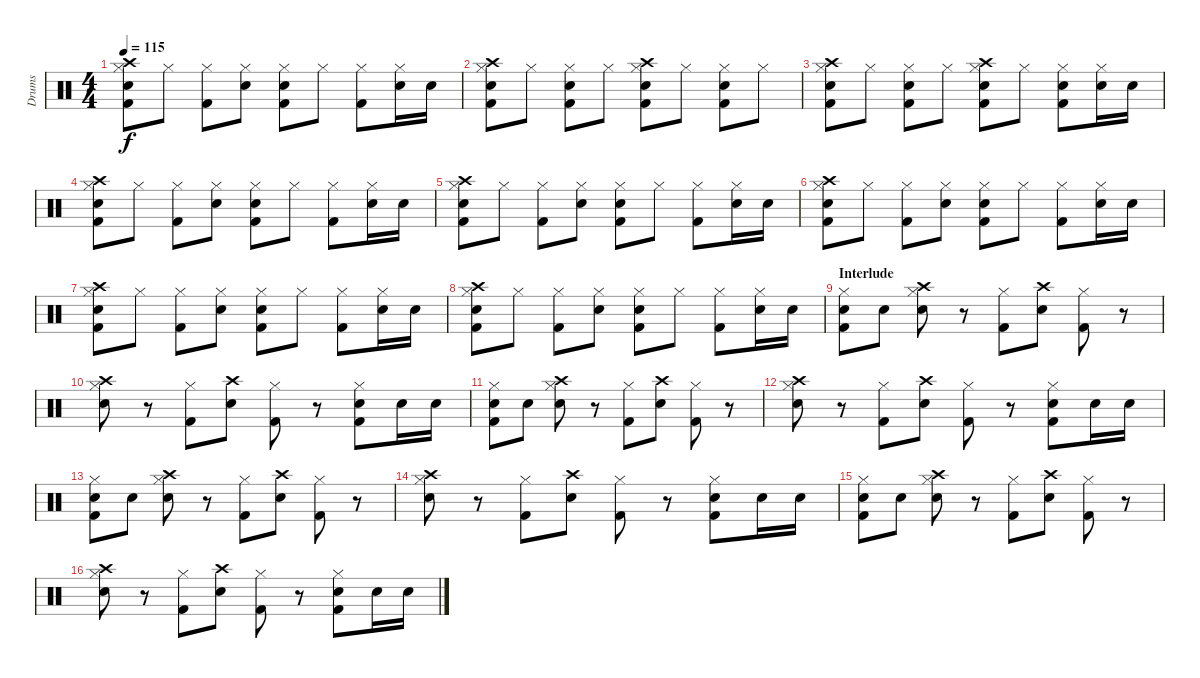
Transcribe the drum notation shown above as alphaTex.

\track ("Drums" "Drums") {instrument percussion}
\staff {score}
\articulation defaults
\ts (4 4)
\tempo 115
\clef neutral
\ks c
("Hi-Hat (closed)" "Kick (hit) 2" "Snare (hit) 2" "Crash high (hit)").8{dy f} "Hi-Hat (closed)".8 ("Hi-Hat (closed)" "Kick (hit) 2").8 ("Hi-Hat (closed)" "Snare (hit) 2").8 ("Hi-Hat (closed)" "Kick (hit) 2" "Snare (hit) 2").8 "Hi-Hat (closed)".8 ("Hi-Hat (closed)" "Kick (hit) 2").8 ("Hi-Hat (closed)" "Snare (hit) 2").16 "Snare (hit) 2".16 |
("Hi-Hat (closed)" "Kick (hit) 2" "Snare (hit) 2" "Crash high (hit)").8 "Hi-Hat (closed)".8 ("Hi-Hat (closed)" "Kick (hit) 2" "Snare (hit) 2").8 "Hi-Hat (closed)".8 ("Hi-Hat (closed)" "Kick (hit) 2" "Snare (hit) 2" "Crash high (hit)").8 "Hi-Hat (closed)".8 ("Hi-Hat (closed)" "Kick (hit) 2" "Snare (hit) 2").8 "Hi-Hat (closed)".8 |
("Hi-Hat (closed)" "Kick (hit) 2" "Snare (hit) 2" "Crash high (hit)").8 "Hi-Hat (closed)".8 ("Hi-Hat (closed)" "Kick (hit) 2" "Snare (hit) 2").8 "Hi-Hat (closed)".8 ("Hi-Hat (closed)" "Kick (hit) 2" "Snare (hit) 2" "Crash high (hit)").8 "Hi-Hat (closed)".8 ("Hi-Hat (closed)" "Kick (hit) 2" "Snare (hit) 2").8 ("Hi-Hat (closed)" "Snare (hit) 2").16 "Snare (hit) 2".16 |
("Hi-Hat (closed)" "Kick (hit) 2" "Snare (hit) 2" "Crash high (hit)").8 "Hi-Hat (closed)".8 ("Hi-Hat (closed)" "Kick (hit) 2").8 ("Hi-Hat (closed)" "Snare (hit) 2").8 ("Hi-Hat (closed)" "Kick (hit) 2" "Snare (hit) 2").8 "Hi-Hat (closed)".8 ("Hi-Hat (closed)" "Kick (hit) 2").8 ("Hi-Hat (closed)" "Snare (hit) 2").16 "Snare (hit) 2".16 |
("Hi-Hat (closed)" "Kick (hit) 2" "Snare (hit) 2" "Crash high (hit)").8 "Hi-Hat (closed)".8 ("Hi-Hat (closed)" "Kick (hit) 2").8 ("Hi-Hat (closed)" "Snare (hit) 2").8 ("Hi-Hat (closed)" "Kick (hit) 2" "Snare (hit) 2").8 "Hi-Hat (closed)".8 ("Hi-Hat (closed)" "Kick (hit) 2").8 ("Hi-Hat (closed)" "Snare (hit) 2").16 "Snare (hit) 2".16 |
("Hi-Hat (closed)" "Kick (hit) 2" "Snare (hit) 2" "Crash high (hit)").8 "Hi-Hat (closed)".8 ("Hi-Hat (closed)" "Kick (hit) 2").8 ("Hi-Hat (closed)" "Snare (hit) 2").8 ("Hi-Hat (closed)" "Kick (hit) 2" "Snare (hit) 2").8 "Hi-Hat (closed)".8 ("Hi-Hat (closed)" "Kick (hit) 2").8 ("Hi-Hat (closed)" "Snare (hit) 2").16 "Snare (hit) 2".16 |
("Hi-Hat (closed)" "Kick (hit) 2" "Snare (hit) 2" "Crash high (hit)").8 "Hi-Hat (closed)".8 ("Hi-Hat (closed)" "Kick (hit) 2").8 ("Hi-Hat (closed)" "Snare (hit) 2").8 ("Hi-Hat (closed)" "Kick (hit) 2" "Snare (hit) 2").8 "Hi-Hat (closed)".8 ("Hi-Hat (closed)" "Kick (hit) 2").8 ("Hi-Hat (closed)" "Snare (hit) 2").16 "Snare (hit) 2".16 |
("Hi-Hat (closed)" "Kick (hit) 2" "Snare (hit) 2" "Crash high (hit)").8 "Hi-Hat (closed)".8 ("Hi-Hat (closed)" "Kick (hit) 2").8 ("Hi-Hat (closed)" "Snare (hit) 2").8 ("Hi-Hat (closed)" "Kick (hit) 2" "Snare (hit) 2").8 "Hi-Hat (closed)".8 ("Hi-Hat (closed)" "Kick (hit) 2").8 ("Hi-Hat (closed)" "Snare (hit) 2").16 "Snare (hit) 2".16 |
\section ("" "Interlude")
("Hi-Hat (closed)" "Kick (hit) 2" "Snare (hit) 2").8 "Snare (hit) 2".8 ("Hi-Hat (closed)" "Crash high (hit)" "Snare (hit) 2").8 r.8 ("Hi-Hat (closed)" "Kick (hit) 2").8 ("Crash high (hit)" "Snare (hit) 2").8 ("Hi-Hat (closed)" "Kick (hit) 2").8 r.8 |
("Hi-Hat (closed)" "Crash high (hit)" "Snare (hit) 2").8 r.8 ("Hi-Hat (closed)" "Kick (hit) 2").8 ("Crash high (hit)" "Snare (hit) 2").8 ("Hi-Hat (closed)" "Kick (hit) 2").8 r.8 ("Hi-Hat (closed)" "Kick (hit) 2" "Snare (hit) 2").8 "Snare (hit) 2".16 "Snare (hit) 2".16 |
("Hi-Hat (closed)" "Kick (hit) 2" "Snare (hit) 2").8 "Snare (hit) 2".8 ("Hi-Hat (closed)" "Crash high (hit)" "Snare (hit) 2").8 r.8 ("Hi-Hat (closed)" "Kick (hit) 2").8 ("Crash high (hit)" "Snare (hit) 2").8 ("Hi-Hat (closed)" "Kick (hit) 2").8 r.8 |
("Hi-Hat (closed)" "Crash high (hit)" "Snare (hit) 2").8 r.8 ("Hi-Hat (closed)" "Kick (hit) 2").8 ("Crash high (hit)" "Snare (hit) 2").8 ("Hi-Hat (closed)" "Kick (hit) 2").8 r.8 ("Hi-Hat (closed)" "Kick (hit) 2" "Snare (hit) 2").8 "Snare (hit) 2".16 "Snare (hit) 2".16 |
("Hi-Hat (closed)" "Kick (hit) 2" "Snare (hit) 2").8 "Snare (hit) 2".8 ("Hi-Hat (closed)" "Crash high (hit)" "Snare (hit) 2").8 r.8 ("Hi-Hat (closed)" "Kick (hit) 2").8 ("Crash high (hit)" "Snare (hit) 2").8 ("Hi-Hat (closed)" "Kick (hit) 2").8 r.8 |
("Hi-Hat (closed)" "Crash high (hit)" "Snare (hit) 2").8 r.8 ("Hi-Hat (closed)" "Kick (hit) 2").8 ("Crash high (hit)" "Snare (hit) 2").8 ("Hi-Hat (closed)" "Kick (hit) 2").8 r.8 ("Hi-Hat (closed)" "Kick (hit) 2" "Snare (hit) 2").8 "Snare (hit) 2".16 "Snare (hit) 2".16 |
("Hi-Hat (closed)" "Kick (hit) 2" "Snare (hit) 2").8 "Snare (hit) 2".8 ("Hi-Hat (closed)" "Crash high (hit)" "Snare (hit) 2").8 r.8 ("Hi-Hat (closed)" "Kick (hit) 2").8 ("Crash high (hit)" "Snare (hit) 2").8 ("Hi-Hat (closed)" "Kick (hit) 2").8 r.8 |
("Hi-Hat (closed)" "Crash high (hit)" "Snare (hit) 2").8 r.8 ("Hi-Hat (closed)" "Kick (hit) 2").8 ("Crash high (hit)" "Snare (hit) 2").8 ("Hi-Hat (closed)" "Kick (hit) 2").8 r.8 ("Hi-Hat (closed)" "Kick (hit) 2" "Snare (hit) 2").8 "Snare (hit) 2".16 "Snare (hit) 2".16
